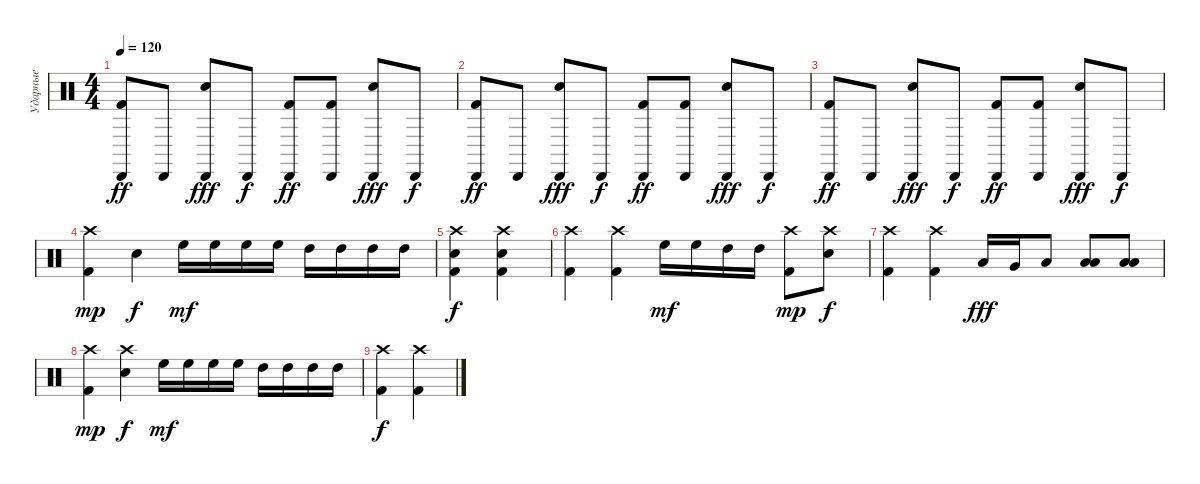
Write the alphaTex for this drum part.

\track ("Ударные" "Ударные") {instrument percussion}
\staff {score}
\articulation defaults
\ts (4 4)
\tempo 120
\clef neutral
\ks c
("Cabasa (hit)" "Kick (hit) 2").8{dy ff} "Cabasa (hit)".8 ("Snare (hit) 2" "Cabasa (hit)").8{dy fff} "Cabasa (hit)".8{dy f} ("Cabasa (hit)" "Kick (hit) 2").8{dy ff} ("Cabasa (hit)" "Kick (hit) 2").8 ("Snare (hit) 2" "Cabasa (hit)").8{dy fff} "Cabasa (hit)".8{dy f} |
("Cabasa (hit)" "Kick (hit) 2").8{dy ff} "Cabasa (hit)".8 ("Snare (hit) 2" "Cabasa (hit)").8{dy fff} "Cabasa (hit)".8{dy f} ("Cabasa (hit)" "Kick (hit) 2").8{dy ff} ("Cabasa (hit)" "Kick (hit) 2").8 ("Snare (hit) 2" "Cabasa (hit)").8{dy fff} "Cabasa (hit)".8{dy f} |
("Cabasa (hit)" "Kick (hit) 2").8{dy ff} "Cabasa (hit)".8 ("Snare (hit) 2" "Cabasa (hit)").8{dy fff} "Cabasa (hit)".8{dy f} ("Cabasa (hit)" "Kick (hit) 2").8{dy ff} ("Cabasa (hit)" "Kick (hit) 2").8 ("Snare (hit) 2" "Cabasa (hit)").8{dy fff} "Cabasa (hit)".8{dy f} |
("Crash high (hit)" "Kick (hit) 2").4{dy mp} "Snare (hit) 2".4{dy f} "High Floor Tom (hit)".16{dy mf} "High Floor Tom (hit)".16 "High Floor Tom (hit)".16 "High Floor Tom (hit)".16 "High Tom (hit)".16 "High Tom (hit)".16 "High Tom (hit)".16 "High Tom (hit)".16 |
("Kick (hit) 2" "Snare (hit) 2" "Crash high (hit)").4{dy f} ("Kick (hit) 2" "Snare (hit) 2" "Crash high (hit)").4 |
("Kick (hit) 2" "Crash high (hit)").4 ("Kick (hit) 2" "Crash high (hit)").4 "High Floor Tom (hit)".16{dy mf} "High Floor Tom (hit)".16 "High Tom (hit)".16 "High Tom (hit)".16 ("Crash high (hit)" "Kick (hit) 2").8{dy mp} ("Crash high (hit)" "Snare (hit) 2").8{dy f} |
("Kick (hit) 2" "Crash high (hit)").4 ("Kick (hit) 2" "Crash high (hit)").4 "Low Tom (hit)".16{dy fff} "Very Low Tom (hit)".16 "Low Tom (hit)".8 ("Low Floor Tom (hit)" "Low Tom (hit)").8 ("Low Floor Tom (hit)" "Low Tom (hit)").8 |
("Crash high (hit)" "Kick (hit) 2").4{dy mp} ("Crash high (hit)" "Snare (hit) 2").4{dy f} "High Floor Tom (hit)".16{dy mf} "High Floor Tom (hit)".16 "High Floor Tom (hit)".16 "High Floor Tom (hit)".16 "High Tom (hit)".16 "High Tom (hit)".16 "High Tom (hit)".16 "High Tom (hit)".16 |
("Kick (hit) 2" "Crash high (hit)").4{dy f} ("Kick (hit) 2" "Crash high (hit)").4
